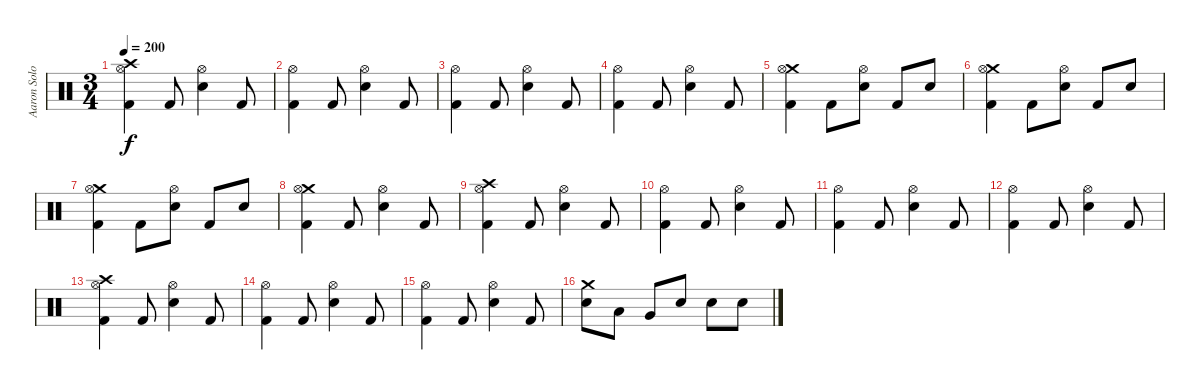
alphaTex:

\track ("Aaron Solowoniuk" "Aaron Solo") {instrument percussion}
\staff {score}
\articulation defaults
\ts (3 4)
\tempo 200
\clef neutral
\ks c
("Crash high (hit)" "Hi-Hat (open)" "Kick (hit) 2").4{dy f} "Kick (hit) 2".8 ("Hi-Hat (open)" "Snare (hit) 2").4 "Kick (hit) 2".8 |
("Hi-Hat (open)" "Kick (hit) 2").4 "Kick (hit) 2".8 ("Hi-Hat (open)" "Snare (hit) 2").4 "Kick (hit) 2".8 |
("Hi-Hat (open)" "Kick (hit) 2").4 "Kick (hit) 2".8 ("Hi-Hat (open)" "Snare (hit) 2").4 "Kick (hit) 2".8 |
("Hi-Hat (open)" "Kick (hit) 2").4 "Kick (hit) 2".8 ("Hi-Hat (open)" "Snare (hit) 2").4 "Kick (hit) 2".8 |
("Crash medium (hit)" "Hi-Hat (open)" "Kick (hit) 2").4 "Kick (hit) 2".8 ("Hi-Hat (open)" "Snare (hit) 2").8 "Kick (hit) 2".8 "Snare (hit) 2".8 |
("Crash medium (hit)" "Hi-Hat (open)" "Kick (hit) 2").4 "Kick (hit) 2".8 ("Hi-Hat (open)" "Snare (hit) 2").8 "Kick (hit) 2".8 "Snare (hit) 2".8 |
("Crash medium (hit)" "Hi-Hat (open)" "Kick (hit) 2").4 "Kick (hit) 2".8 ("Hi-Hat (open)" "Snare (hit) 2").8 "Kick (hit) 2".8 "Snare (hit) 2".8 |
("Crash medium (hit)" "Hi-Hat (open)" "Kick (hit) 2").4 "Kick (hit) 2".8 ("Hi-Hat (open)" "Snare (hit) 2").4 "Kick (hit) 2".8 |
("Crash high (hit)" "Hi-Hat (open)" "Kick (hit) 2").4 "Kick (hit) 2".8 ("Hi-Hat (open)" "Snare (hit) 2").4 "Kick (hit) 2".8 |
("Hi-Hat (open)" "Kick (hit) 2").4 "Kick (hit) 2".8 ("Hi-Hat (open)" "Snare (hit) 2").4 "Kick (hit) 2".8 |
("Hi-Hat (open)" "Kick (hit) 2").4 "Kick (hit) 2".8 ("Hi-Hat (open)" "Snare (hit) 2").4 "Kick (hit) 2".8 |
("Hi-Hat (open)" "Kick (hit) 2").4 "Kick (hit) 2".8 ("Hi-Hat (open)" "Snare (hit) 2").4 "Kick (hit) 2".8 |
("Crash high (hit)" "Hi-Hat (open)" "Kick (hit) 2").4 "Kick (hit) 2".8 ("Hi-Hat (open)" "Snare (hit) 2").4 "Kick (hit) 2".8 |
("Hi-Hat (open)" "Kick (hit) 2").4 "Kick (hit) 2".8 ("Hi-Hat (open)" "Snare (hit) 2").4 "Kick (hit) 2".8 |
("Hi-Hat (open)" "Kick (hit) 2").4 "Kick (hit) 2".8 ("Hi-Hat (open)" "Snare (hit) 2").4 "Kick (hit) 2".8 |
("Crash medium (hit)" "Snare (hit) 2").8 "Low Tom (hit)".8 "Very Low Tom (hit)".8 "Snare (hit) 2".8 "Snare (hit) 2".8 "Snare (hit) 2".8
